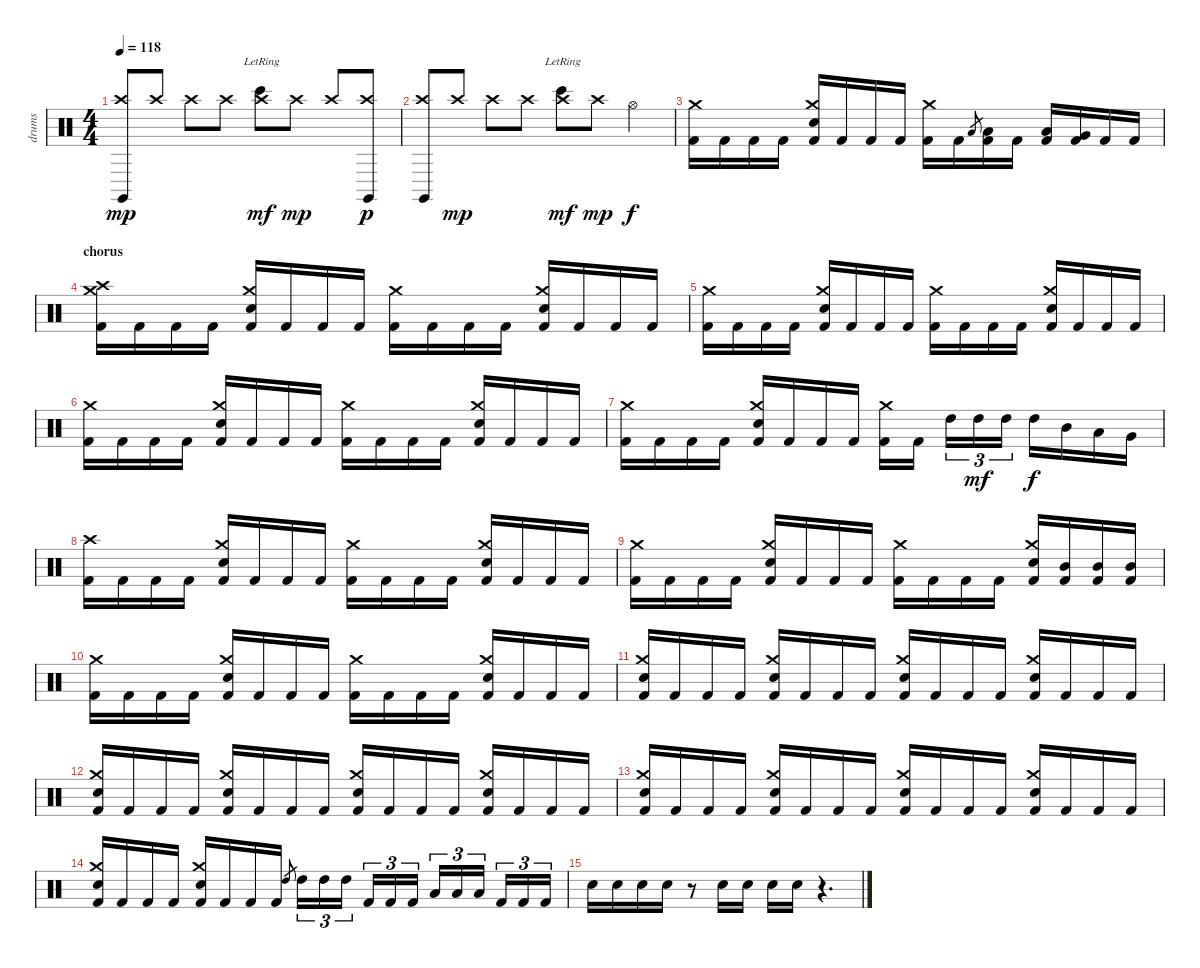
\track ("drums" "drums") {instrument percussion}
\staff {score}
\articulation defaults
\ts (4 4)
\tempo 118
\clef neutral
\ks c
("Crash high (hit)" "Claves (hit)").8{dy mp} "Crash high (hit)".8 "Crash high (hit)".8 "Crash high (hit)".8 ("Crash high (hit)" "Bongo High (hit)"{lr}).8{dy mf} "Crash high (hit)".8{dy mp} "Crash high (hit)".8 ("Crash high (hit)" "Claves (hit)").8{dy p} |
("Crash high (hit)" "Claves (hit)").8 "Crash high (hit)".8{dy mp} "Crash high (hit)".8 "Crash high (hit)".8 ("Crash high (hit)" "Bongo High (hit)"{lr}).8{dy mf} "Crash high (hit)".8{dy mp} "Hi-Hat (open)".4{dy f} |
("Kick (hit) 2" "Crash medium (hit)").16 "Kick (hit) 2".16 "Kick (hit) 2".16 "Kick (hit) 2".16 ("Kick (hit) 2" "Crash medium (hit)" "Snare (hit) 2").16 "Kick (hit) 2".16 "Kick (hit) 2".16 "Kick (hit) 2".16 ("Kick (hit) 2" "Crash medium (hit)").16 "Kick (hit) 2".16 "Low Tom (hit)".8{gr} ("Kick (hit) 2" "Low Tom (hit)").16 "Kick (hit) 2".16 ("Kick (hit) 2" "Low Tom (hit)").16 ("Kick (hit) 2" "Very Low Tom (hit)").16 "Kick (hit) 2".16 "Kick (hit) 2".16 |
\section ("" "chorus")
("Kick (hit) 2" "Crash high (hit)" "Crash medium (hit)").16 "Kick (hit) 2".16 "Kick (hit) 2".16 "Kick (hit) 2".16 ("Kick (hit) 2" "Crash medium (hit)" "Snare (hit) 2").16 "Kick (hit) 2".16 "Kick (hit) 2".16 "Kick (hit) 2".16 ("Kick (hit) 2" "Crash medium (hit)").16 "Kick (hit) 2".16 "Kick (hit) 2".16 "Kick (hit) 2".16 ("Kick (hit) 2" "Crash medium (hit)" "Snare (hit) 2").16 "Kick (hit) 2".16 "Kick (hit) 2".16 "Kick (hit) 2".16 |
("Kick (hit) 2" "Crash medium (hit)").16 "Kick (hit) 2".16 "Kick (hit) 2".16 "Kick (hit) 2".16 ("Kick (hit) 2" "Crash medium (hit)" "Snare (hit) 2").16 "Kick (hit) 2".16 "Kick (hit) 2".16 "Kick (hit) 2".16 ("Kick (hit) 2" "Crash medium (hit)").16 "Kick (hit) 2".16 "Kick (hit) 2".16 "Kick (hit) 2".16 ("Kick (hit) 2" "Crash medium (hit)" "Snare (hit) 2").16 "Kick (hit) 2".16 "Kick (hit) 2".16 "Kick (hit) 2".16 |
("Kick (hit) 2" "Crash medium (hit)").16 "Kick (hit) 2".16 "Kick (hit) 2".16 "Kick (hit) 2".16 ("Kick (hit) 2" "Crash medium (hit)" "Snare (hit) 2").16 "Kick (hit) 2".16 "Kick (hit) 2".16 "Kick (hit) 2".16 ("Kick (hit) 2" "Crash medium (hit)").16 "Kick (hit) 2".16 "Kick (hit) 2".16 "Kick (hit) 2".16 ("Kick (hit) 2" "Crash medium (hit)" "Snare (hit) 2").16 "Kick (hit) 2".16 "Kick (hit) 2".16 "Kick (hit) 2".16 |
("Kick (hit) 2" "Crash medium (hit)").16 "Kick (hit) 2".16 "Kick (hit) 2".16 "Kick (hit) 2".16 ("Kick (hit) 2" "Crash medium (hit)" "Snare (hit) 2").16 "Kick (hit) 2".16 "Kick (hit) 2".16 "Kick (hit) 2".16 ("Kick (hit) 2" "Crash medium (hit)").16 "Kick (hit) 2".16 "High Tom (hit)".16{tu (3 2)} "High Tom (hit)".16{tu (3 2) dy mf} "High Tom (hit)".16{tu (3 2)} "High Tom (hit)".16{dy f} "Mid Tom (hit)".16 "Low Tom (hit)".16 "Very Low Tom (hit)".16 |
("Kick (hit) 2" "Crash high (hit)").16 "Kick (hit) 2".16 "Kick (hit) 2".16 "Kick (hit) 2".16 ("Kick (hit) 2" "Crash medium (hit)" "Snare (hit) 2").16 "Kick (hit) 2".16 "Kick (hit) 2".16 "Kick (hit) 2".16 ("Kick (hit) 2" "Crash medium (hit)").16 "Kick (hit) 2".16 "Kick (hit) 2".16 "Kick (hit) 2".16 ("Kick (hit) 2" "Crash medium (hit)" "Snare (hit) 2").16 "Kick (hit) 2".16 "Kick (hit) 2".16 "Kick (hit) 2".16 |
("Kick (hit) 2" "Crash medium (hit)").16 "Kick (hit) 2".16 "Kick (hit) 2".16 "Kick (hit) 2".16 ("Kick (hit) 2" "Crash medium (hit)" "Snare (hit) 2").16 "Kick (hit) 2".16 "Kick (hit) 2".16 "Kick (hit) 2".16 ("Kick (hit) 2" "Crash medium (hit)").16 "Kick (hit) 2".16 "Kick (hit) 2".16 "Kick (hit) 2".16 ("Kick (hit) 2" "Crash medium (hit)" "Snare (hit) 2").16 ("Kick (hit) 2" "Mid Tom (hit)").16 ("Kick (hit) 2" "Mid Tom (hit)").16 ("Kick (hit) 2" "Mid Tom (hit)").16 |
("Kick (hit) 2" "Crash medium (hit)").16 "Kick (hit) 2".16 "Kick (hit) 2".16 "Kick (hit) 2".16 ("Kick (hit) 2" "Crash medium (hit)" "Snare (hit) 2").16 "Kick (hit) 2".16 "Kick (hit) 2".16 "Kick (hit) 2".16 ("Kick (hit) 2" "Crash medium (hit)").16 "Kick (hit) 2".16 "Kick (hit) 2".16 "Kick (hit) 2".16 ("Kick (hit) 2" "Crash medium (hit)" "Snare (hit) 2").16 "Kick (hit) 2".16 "Kick (hit) 2".16 "Kick (hit) 2".16 |
("Kick (hit) 2" "Crash medium (hit)" "Snare (hit) 2").16 "Kick (hit) 2".16 "Kick (hit) 2".16 "Kick (hit) 2".16 ("Kick (hit) 2" "Crash medium (hit)" "Snare (hit) 2").16 "Kick (hit) 2".16 "Kick (hit) 2".16 "Kick (hit) 2".16 ("Kick (hit) 2" "Crash medium (hit)" "Snare (hit) 2").16 "Kick (hit) 2".16 "Kick (hit) 2".16 "Kick (hit) 2".16 ("Kick (hit) 2" "Crash medium (hit)" "Snare (hit) 2").16 "Kick (hit) 2".16 "Kick (hit) 2".16 "Kick (hit) 2".16 |
("Kick (hit) 2" "Crash medium (hit)" "Snare (hit) 2").16 "Kick (hit) 2".16 "Kick (hit) 2".16 "Kick (hit) 2".16 ("Kick (hit) 2" "Crash medium (hit)" "Snare (hit) 2").16 "Kick (hit) 2".16 "Kick (hit) 2".16 "Kick (hit) 2".16 ("Kick (hit) 2" "Crash medium (hit)" "Snare (hit) 2").16 "Kick (hit) 2".16 "Kick (hit) 2".16 "Kick (hit) 2".16 ("Kick (hit) 2" "Crash medium (hit)" "Snare (hit) 2").16 "Kick (hit) 2".16 "Kick (hit) 2".16 "Kick (hit) 2".16 |
("Kick (hit) 2" "Crash medium (hit)" "Snare (hit) 2").16 "Kick (hit) 2".16 "Kick (hit) 2".16 "Kick (hit) 2".16 ("Kick (hit) 2" "Crash medium (hit)" "Snare (hit) 2").16 "Kick (hit) 2".16 "Kick (hit) 2".16 "Kick (hit) 2".16 ("Kick (hit) 2" "Crash medium (hit)" "Snare (hit) 2").16 "Kick (hit) 2".16 "Kick (hit) 2".16 "Kick (hit) 2".16 ("Kick (hit) 2" "Crash medium (hit)" "Snare (hit) 2").16 "Kick (hit) 2".16 "Kick (hit) 2".16 "Kick (hit) 2".16 |
("Kick (hit) 2" "Crash medium (hit)" "Snare (hit) 2").16 "Kick (hit) 2".16 "Kick (hit) 2".16 "Kick (hit) 2".16 ("Kick (hit) 2" "Crash medium (hit)" "Snare (hit) 2").16 "Kick (hit) 2".16 "Kick (hit) 2".16 "Kick (hit) 2".16 "High Tom (hit)".8{gr} "High Tom (hit)".16{tu (3 2)} "High Tom (hit)".16{tu (3 2)} "High Tom (hit)".16{tu (3 2)} "Kick (hit) 2".16{tu (3 2)} "Kick (hit) 2".16{tu (3 2)} "Kick (hit) 2".16{tu (3 2)} "Low Tom (hit)".16{tu (3 2)} "Low Tom (hit)".16{tu (3 2)} "Low Tom (hit)".16{tu (3 2)} "Kick (hit) 2".16{tu (3 2)} "Kick (hit) 2".16{tu (3 2)} "Kick (hit) 2".16{tu (3 2)} |
"Snare (hit) 2".16 "Snare (hit) 2".16 "Snare (hit) 2".16 "Snare (hit) 2".16 r.8 "Snare (hit) 2".16 "Snare (hit) 2".16 "Snare (hit) 2".16 "Snare (hit) 2".16 r.4{d}
